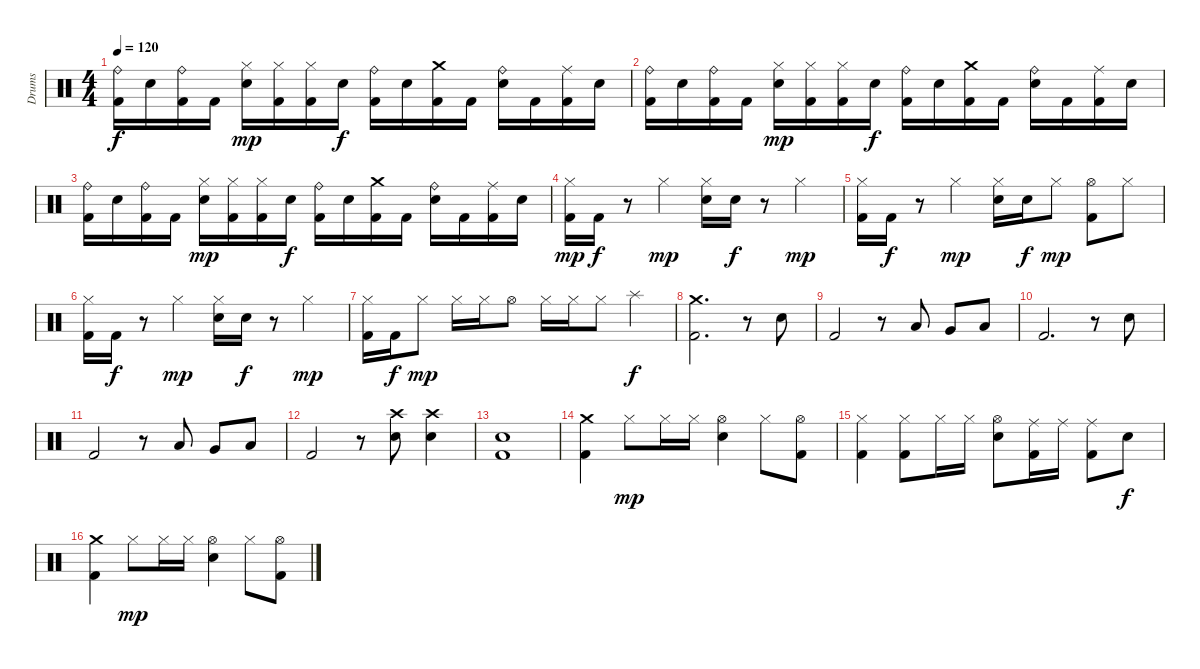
\track ("Drums" "Drums") {instrument percussion}
\staff {score}
\articulation defaults
\ts (4 4)
\tempo 120
\clef neutral
\ks c
("Ride (bell)" "Kick (hit) 2").16{dy f} "Snare (hit) 2".16 ("Ride (bell)" "Kick (hit) 2").16 "Kick (hit) 2".16 ("Hi-Hat (closed)" "Snare (hit) 2").16{dy mp} ("Hi-Hat (closed)" "Kick (hit) 2").16 ("Hi-Hat (closed)" "Kick (hit) 2").16 "Snare (hit) 2".16{dy f} ("Ride (bell)" "Kick (hit) 2").16 "Snare (hit) 2".16 ("Crash medium (hit)" "Kick (hit) 2").16 "Kick (hit) 2".16 ("Ride (bell)" "Snare (hit) 2").16 "Kick (hit) 2".16 ("Ride (middle)" "Kick (hit) 2").16 "Snare (hit) 2".16 |
("Ride (bell)" "Kick (hit) 2").16 "Snare (hit) 2".16 ("Ride (bell)" "Kick (hit) 2").16 "Kick (hit) 2".16 ("Hi-Hat (closed)" "Snare (hit) 2").16{dy mp} ("Hi-Hat (closed)" "Kick (hit) 2").16 ("Hi-Hat (closed)" "Kick (hit) 2").16 "Snare (hit) 2".16{dy f} ("Ride (bell)" "Kick (hit) 2").16 "Snare (hit) 2".16 ("Crash medium (hit)" "Kick (hit) 2").16 "Kick (hit) 2".16 ("Ride (bell)" "Snare (hit) 2").16 "Kick (hit) 2".16 ("Ride (middle)" "Kick (hit) 2").16 "Snare (hit) 2".16 |
("Ride (bell)" "Kick (hit) 2").16 "Snare (hit) 2".16 ("Ride (bell)" "Kick (hit) 2").16 "Kick (hit) 2".16 ("Hi-Hat (closed)" "Snare (hit) 2").16{dy mp} ("Hi-Hat (closed)" "Kick (hit) 2").16 ("Hi-Hat (closed)" "Kick (hit) 2").16 "Snare (hit) 2".16{dy f} ("Ride (bell)" "Kick (hit) 2").16 "Snare (hit) 2".16 ("Crash medium (hit)" "Kick (hit) 2").16 "Kick (hit) 2".16 ("Ride (bell)" "Snare (hit) 2").16 "Kick (hit) 2".16 ("Ride (middle)" "Kick (hit) 2").16 "Snare (hit) 2".16 |
("Hi-Hat (closed)" "Kick (hit) 2").16{dy mp} "Kick (hit) 2".16{dy f} r.8 "Hi-Hat (closed)".4{dy mp} ("Hi-Hat (closed)" "Snare (hit) 2").16 "Snare (hit) 2".16{dy f} r.8 "Hi-Hat (closed)".4{dy mp} |
("Hi-Hat (closed)" "Kick (hit) 2").16 "Kick (hit) 2".16{dy f} r.8 "Hi-Hat (closed)".4{dy mp} ("Hi-Hat (closed)" "Snare (hit) 2").16 "Snare (hit) 2".16{dy f} "Hi-Hat (closed)".8{dy mp} ("Hi-Hat (open)" "Kick (hit) 2").8 "Hi-Hat (closed)".8 |
("Hi-Hat (closed)" "Kick (hit) 2").16 "Kick (hit) 2".16{dy f} r.8 "Hi-Hat (closed)".4{dy mp} ("Hi-Hat (closed)" "Snare (hit) 2").16 "Snare (hit) 2".16{dy f} r.8 "Hi-Hat (closed)".4{dy mp} |
("Hi-Hat (closed)" "Kick (hit) 2").16 "Kick (hit) 2".16{dy f} "Hi-Hat (closed)".8{dy mp} "Hi-Hat (closed)".16 "Hi-Hat (closed)".16 "Hi-Hat (open)".8 "Hi-Hat (closed)".16 "Hi-Hat (closed)".16 "Hi-Hat (closed)".8 "Splash (hit)".4{dy f} |
("Crash medium (hit)" "Kick (hit) 2").2{d} r.8 "Snare (hit) 2".8 |
"Kick (hit) 2".2 r.8 "Low Tom (hit)".8 "Very Low Tom (hit)".8 "Low Floor Tom (hit)".8 |
"Kick (hit) 2".2{d} r.8 "Snare (hit) 2".8 |
"Kick (hit) 2".2 r.8 "Low Tom (hit)".8 "Very Low Tom (hit)".8 "Low Floor Tom (hit)".8 |
"Kick (hit) 2".2 r.8 ("Crash high (hit)" "Snare (hit) 2").8 ("Crash high (hit)" "Snare (hit) 2").4 |
("Snare (hit) 2" "Kick (hit) 2").1 |
("Crash medium (hit)" "Kick (hit) 2").4 "Hi-Hat (closed)".8{dy mp} "Hi-Hat (closed)".16 "Hi-Hat (closed)".16 ("Hi-Hat (open)" "Snare (hit) 2").4 "Hi-Hat (closed)".8 ("Hi-Hat (open)" "Kick (hit) 2").8 |
("Hi-Hat (closed)" "Kick (hit) 2").4 ("Hi-Hat (closed)" "Kick (hit) 2").8 "Hi-Hat (closed)".16 "Hi-Hat (closed)".16 ("Hi-Hat (open)" "Snare (hit) 2").8 ("Ride (middle)" "Kick (hit) 2").16 "Ride (middle)".16 ("Ride (middle)" "Kick (hit) 2").8 "Snare (hit) 2".8{dy f} |
("Crash medium (hit)" "Kick (hit) 2").4 "Hi-Hat (closed)".8{dy mp} "Hi-Hat (closed)".16 "Hi-Hat (closed)".16 ("Hi-Hat (open)" "Snare (hit) 2").4 "Hi-Hat (closed)".8 ("Hi-Hat (open)" "Kick (hit) 2").8
